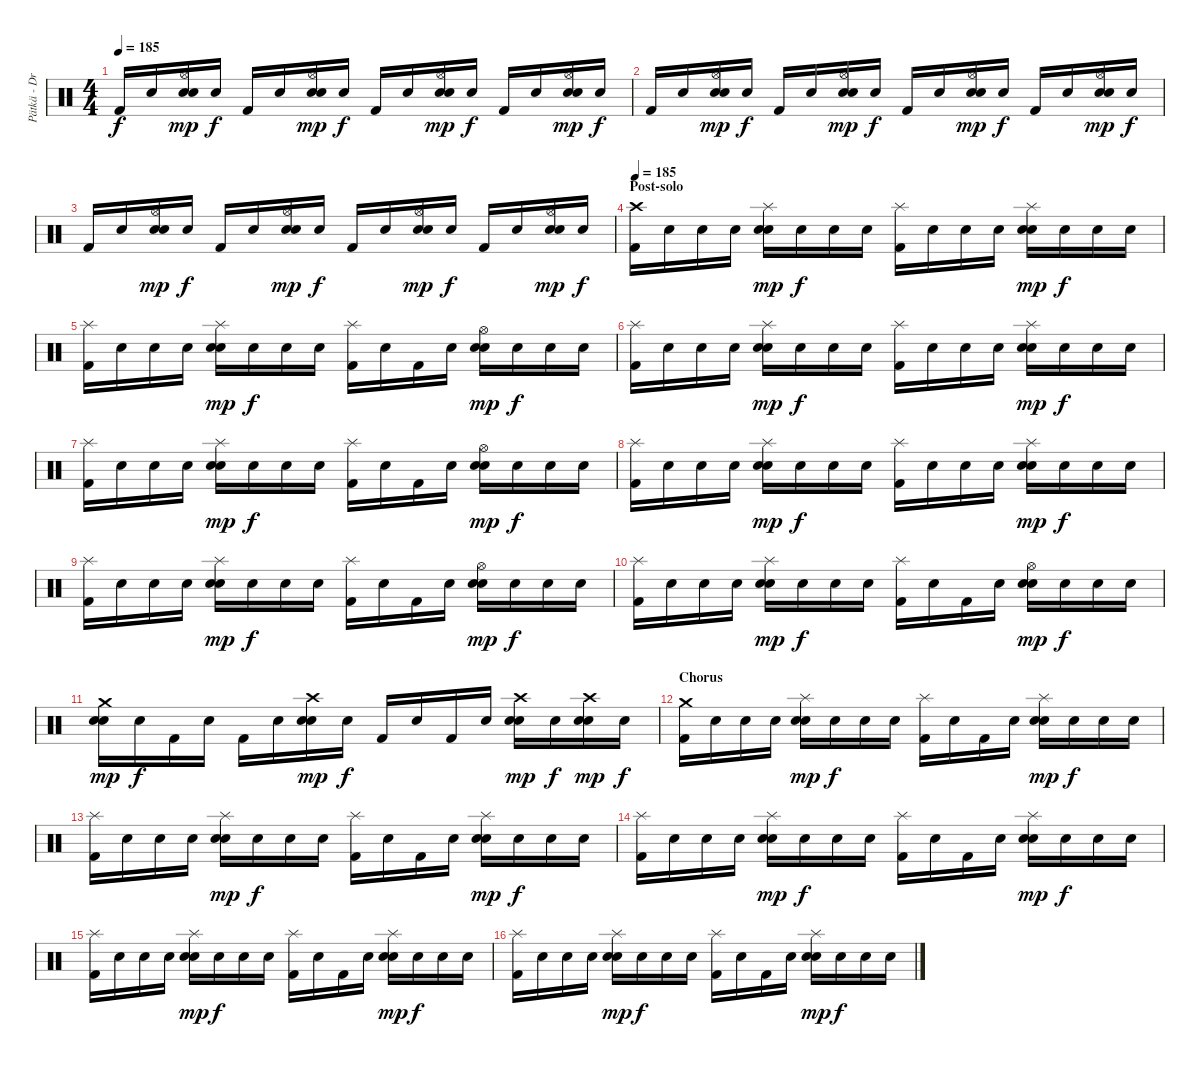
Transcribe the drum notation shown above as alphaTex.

\track ("Pätkä - Drums" "Pätkä - Dr") {instrument percussion}
\staff {score}
\articulation defaults
\ts (4 4)
\tempo 185
\clef neutral
\ks c "Kick (hit) 2".16{dy f} "Snare (hit)".16
("Hi-Hat (open)" "Electric Snare (hit)" "Snare (hit) 2").16{dy mp} "Snare (hit)".16{dy f} "Kick (hit) 2".16 "Snare (hit)".16 ("Hi-Hat (open)" "Electric Snare (hit)" "Snare (hit) 2").16{dy mp} "Snare (hit)".16{dy f} "Kick (hit) 2".16 "Snare (hit)".16 ("Hi-Hat (open)" "Electric Snare (hit)" "Snare (hit) 2").16{dy mp} "Snare (hit)".16{dy f} "Kick (hit) 2".16 "Snare (hit)".16 ("Hi-Hat (open)" "Electric Snare (hit)" "Snare (hit) 2").16{dy mp} "Snare (hit)".16{dy f} |
"Kick (hit) 2".16 "Snare (hit)".16 ("Hi-Hat (open)" "Electric Snare (hit)" "Snare (hit) 2").16{dy mp} "Snare (hit)".16{dy f} "Kick (hit) 2".16 "Snare (hit)".16 ("Hi-Hat (open)" "Electric Snare (hit)" "Snare (hit) 2").16{dy mp} "Snare (hit)".16{dy f} "Kick (hit) 2".16 "Snare (hit)".16 ("Hi-Hat (open)" "Electric Snare (hit)" "Snare (hit) 2").16{dy mp} "Snare (hit)".16{dy f} "Kick (hit) 2".16 "Snare (hit)".16 ("Hi-Hat (open)" "Electric Snare (hit)" "Snare (hit) 2").16{dy mp} "Snare (hit)".16{dy f} |
"Kick (hit) 2".16 "Snare (hit)".16 ("Hi-Hat (open)" "Electric Snare (hit)" "Snare (hit) 2").16{dy mp} "Snare (hit)".16{dy f} "Kick (hit) 2".16 "Snare (hit)".16 ("Hi-Hat (open)" "Electric Snare (hit)" "Snare (hit) 2").16{dy mp} "Snare (hit)".16{dy f} "Kick (hit) 2".16 "Snare (hit)".16 ("Hi-Hat (open)" "Electric Snare (hit)" "Snare (hit) 2").16{dy mp} "Snare (hit)".16{dy f} "Kick (hit) 2".16 "Snare (hit)".16 ("Hi-Hat (open)" "Electric Snare (hit)" "Snare (hit) 2").16{dy mp} "Snare (hit)".16{dy f} |
\section ("" "Post-solo")
\tempo 185
("Crash high (hit)" "Kick (hit) 2").16{volume 16 balance 8} "Snare (hit)".16 "Snare (hit)".16 "Snare (hit)".16 ("Splash (hit)" "Electric Snare (hit)" "Snare (hit) 2").16{dy mp} "Snare (hit)".16{dy f} "Snare (hit)".16 "Snare (hit)".16 ("Splash (hit)" "Kick (hit) 2").16 "Snare (hit)".16 "Snare (hit)".16 "Snare (hit)".16 ("Splash (hit)" "Electric Snare (hit)" "Snare (hit) 2").16{dy mp} "Snare (hit)".16{dy f} "Snare (hit)".16 "Snare (hit)".16 |
("Splash (hit)" "Kick (hit) 2").16 "Snare (hit)".16 "Snare (hit)".16 "Snare (hit)".16 ("Splash (hit)" "Electric Snare (hit)" "Snare (hit) 2").16{dy mp} "Snare (hit)".16{dy f} "Snare (hit)".16 "Snare (hit)".16 ("Splash (hit)" "Kick (hit) 2").16 "Snare (hit)".16 "Kick (hit) 2".16 "Snare (hit)".16 ("Hi-Hat (open)" "Electric Snare (hit)" "Snare (hit) 2").16{dy mp} "Snare (hit)".16{dy f} "Snare (hit)".16 "Snare (hit)".16 |
("Splash (hit)" "Kick (hit) 2").16 "Snare (hit)".16 "Snare (hit)".16 "Snare (hit)".16 ("Splash (hit)" "Electric Snare (hit)" "Snare (hit) 2").16{dy mp} "Snare (hit)".16{dy f} "Snare (hit)".16 "Snare (hit)".16 ("Splash (hit)" "Kick (hit) 2").16 "Snare (hit)".16 "Snare (hit)".16 "Snare (hit)".16 ("Splash (hit)" "Electric Snare (hit)" "Snare (hit) 2").16{dy mp} "Snare (hit)".16{dy f} "Snare (hit)".16 "Snare (hit)".16 |
("Splash (hit)" "Kick (hit) 2").16 "Snare (hit)".16 "Snare (hit)".16 "Snare (hit)".16 ("Splash (hit)" "Electric Snare (hit)" "Snare (hit) 2").16{dy mp} "Snare (hit)".16{dy f} "Snare (hit)".16 "Snare (hit)".16 ("Splash (hit)" "Kick (hit) 2").16 "Snare (hit)".16 "Kick (hit) 2".16 "Snare (hit)".16 ("Hi-Hat (open)" "Electric Snare (hit)" "Snare (hit) 2").16{dy mp} "Snare (hit)".16{dy f} "Snare (hit)".16 "Snare (hit)".16 |
("Splash (hit)" "Kick (hit) 2").16 "Snare (hit)".16 "Snare (hit)".16 "Snare (hit)".16 ("Splash (hit)" "Electric Snare (hit)" "Snare (hit) 2").16{dy mp} "Snare (hit)".16{dy f} "Snare (hit)".16 "Snare (hit)".16 ("Splash (hit)" "Kick (hit) 2").16 "Snare (hit)".16 "Snare (hit)".16 "Snare (hit)".16 ("Splash (hit)" "Electric Snare (hit)" "Snare (hit) 2").16{dy mp} "Snare (hit)".16{dy f} "Snare (hit)".16 "Snare (hit)".16 |
("Splash (hit)" "Kick (hit) 2").16 "Snare (hit)".16 "Snare (hit)".16 "Snare (hit)".16 ("Splash (hit)" "Electric Snare (hit)" "Snare (hit) 2").16{dy mp} "Snare (hit)".16{dy f} "Snare (hit)".16 "Snare (hit)".16 ("Splash (hit)" "Kick (hit) 2").16 "Snare (hit)".16 "Kick (hit) 2".16 "Snare (hit)".16 ("Hi-Hat (open)" "Electric Snare (hit)" "Snare (hit) 2").16{dy mp} "Snare (hit)".16{dy f} "Snare (hit)".16 "Snare (hit)".16 |
("Splash (hit)" "Kick (hit) 2").16 "Snare (hit)".16 "Snare (hit)".16 "Snare (hit)".16 ("Splash (hit)" "Electric Snare (hit)" "Snare (hit) 2").16{dy mp} "Snare (hit)".16{dy f} "Snare (hit)".16 "Snare (hit)".16 ("Splash (hit)" "Kick (hit) 2").16 "Snare (hit)".16 "Kick (hit) 2".16 "Snare (hit)".16 ("Hi-Hat (open)" "Electric Snare (hit)" "Snare (hit) 2").16{dy mp} "Snare (hit)".16{dy f} "Snare (hit)".16 "Snare (hit)".16 |
("Crash medium (hit)" "Electric Snare (hit)" "Snare (hit) 2").16{dy mp} "Snare (hit)".16{dy f} "Kick (hit) 2".16 "Snare (hit)".16 "Kick (hit) 2".16 "Snare (hit)".16 ("Crash high (hit)" "Electric Snare (hit)" "Snare (hit) 2").16{dy mp} "Snare (hit)".16{dy f} "Kick (hit) 2".16 "Snare (hit)".16 "Kick (hit) 2".16 "Snare (hit)".16 ("Crash high (hit)" "Electric Snare (hit)" "Snare (hit) 2").16{dy mp} "Snare (hit)".16{dy f} ("Crash high (hit)" "Electric Snare (hit)" "Snare (hit) 2").16{dy mp} "Snare (hit)".16{dy f} |
\section ("" "Chorus")
("Crash medium (hit)" "Kick (hit) 2").16{volume 16 balance 8} "Snare (hit)".16 "Snare (hit)".16 "Snare (hit)".16 ("Splash (hit)" "Electric Snare (hit)" "Snare (hit) 2").16{dy mp} "Snare (hit)".16{dy f} "Snare (hit)".16 "Snare (hit)".16 ("Splash (hit)" "Kick (hit) 2").16 "Snare (hit)".16 "Kick (hit) 2".16 "Snare (hit)".16 ("Splash (hit)" "Electric Snare (hit)" "Snare (hit) 2").16{dy mp} "Snare (hit)".16{dy f} "Snare (hit)".16 "Snare (hit)".16 |
("Splash (hit)" "Kick (hit) 2").16 "Snare (hit)".16 "Snare (hit)".16 "Snare (hit)".16 ("Splash (hit)" "Electric Snare (hit)" "Snare (hit) 2").16{dy mp} "Snare (hit)".16{dy f} "Snare (hit)".16 "Snare (hit)".16 ("Splash (hit)" "Kick (hit) 2").16 "Snare (hit)".16 "Kick (hit) 2".16 "Snare (hit)".16 ("Splash (hit)" "Electric Snare (hit)" "Snare (hit) 2").16{dy mp} "Snare (hit)".16{dy f} "Snare (hit)".16 "Snare (hit)".16 |
("Splash (hit)" "Kick (hit) 2").16 "Snare (hit)".16 "Snare (hit)".16 "Snare (hit)".16 ("Splash (hit)" "Electric Snare (hit)" "Snare (hit) 2").16{dy mp} "Snare (hit)".16{dy f} "Snare (hit)".16 "Snare (hit)".16 ("Splash (hit)" "Kick (hit) 2").16 "Snare (hit)".16 "Kick (hit) 2".16 "Snare (hit)".16 ("Splash (hit)" "Electric Snare (hit)" "Snare (hit) 2").16{dy mp} "Snare (hit)".16{dy f} "Snare (hit)".16 "Snare (hit)".16 |
("Splash (hit)" "Kick (hit) 2").16 "Snare (hit)".16 "Snare (hit)".16 "Snare (hit)".16 ("Splash (hit)" "Electric Snare (hit)" "Snare (hit) 2").16{dy mp} "Snare (hit)".16{dy f} "Snare (hit)".16 "Snare (hit)".16 ("Splash (hit)" "Kick (hit) 2").16 "Snare (hit)".16 "Kick (hit) 2".16 "Snare (hit)".16 ("Splash (hit)" "Electric Snare (hit)" "Snare (hit) 2").16{dy mp} "Snare (hit)".16{dy f} "Snare (hit)".16 "Snare (hit)".16 |
("Splash (hit)" "Kick (hit) 2").16 "Snare (hit)".16 "Snare (hit)".16 "Snare (hit)".16 ("Splash (hit)" "Electric Snare (hit)" "Snare (hit) 2").16{dy mp} "Snare (hit)".16{dy f} "Snare (hit)".16 "Snare (hit)".16 ("Splash (hit)" "Kick (hit) 2").16 "Snare (hit)".16 "Kick (hit) 2".16 "Snare (hit)".16 ("Splash (hit)" "Electric Snare (hit)" "Snare (hit) 2").16{dy mp} "Snare (hit)".16{dy f} "Snare (hit)".16 "Snare (hit)".16
